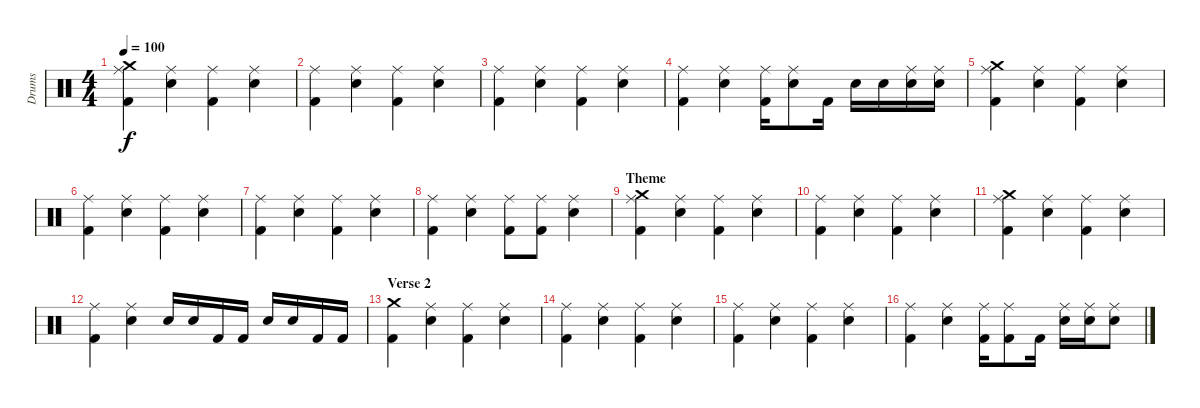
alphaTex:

\track ("Drums" "Drums") {instrument percussion}
\staff {score}
\articulation defaults
\ts (4 4)
\tempo 100
\clef neutral
\ks c
("Kick (hit) 2" "Ride (middle)" "Crash medium (hit)").4{dy f} ("Snare (hit) 2" "Ride (middle)").4 ("Kick (hit) 2" "Ride (middle)").4 ("Snare (hit) 2" "Ride (middle)").4 |
("Kick (hit) 2" "Ride (middle)").4 ("Snare (hit) 2" "Ride (middle)").4 ("Kick (hit) 2" "Ride (middle)").4 ("Snare (hit) 2" "Ride (middle)").4 |
("Kick (hit) 2" "Ride (middle)").4 ("Snare (hit) 2" "Ride (middle)").4 ("Kick (hit) 2" "Ride (middle)").4 ("Snare (hit) 2" "Ride (middle)").4 |
("Kick (hit) 2" "Ride (middle)").4 ("Snare (hit) 2" "Ride (middle)").4 ("Kick (hit) 2" "Ride (middle)").16 ("Snare (hit) 2" "Ride (middle)").8 "Kick (hit) 2".16 "Snare (hit) 2".16 "Snare (hit) 2".16 ("Snare (hit) 2" "Ride (middle)").16 ("Snare (hit) 2" "Ride (middle)").16 |
("Kick (hit) 2" "Ride (middle)" "Crash medium (hit)").4 ("Snare (hit) 2" "Ride (middle)").4 ("Kick (hit) 2" "Ride (middle)").4 ("Snare (hit) 2" "Ride (middle)").4 |
("Kick (hit) 2" "Ride (middle)").4 ("Snare (hit) 2" "Ride (middle)").4 ("Kick (hit) 2" "Ride (middle)").4 ("Snare (hit) 2" "Ride (middle)").4 |
("Kick (hit) 2" "Ride (middle)").4 ("Snare (hit) 2" "Ride (middle)").4 ("Kick (hit) 2" "Ride (middle)").4 ("Snare (hit) 2" "Ride (middle)").4 |
("Kick (hit) 2" "Ride (middle)").4 ("Snare (hit) 2" "Ride (middle)").4 ("Kick (hit) 2" "Ride (middle)").8 ("Kick (hit) 2" "Ride (middle)").8 ("Snare (hit) 2" "Ride (middle)").4 |
\section ("" "Theme")
("Kick (hit) 2" "Ride (middle)" "Crash medium (hit)").4 ("Snare (hit) 2" "Ride (middle)").4 ("Kick (hit) 2" "Ride (middle)").4 ("Snare (hit) 2" "Ride (middle)").4 |
("Kick (hit) 2" "Ride (middle)").4 ("Snare (hit) 2" "Ride (middle)").4 ("Kick (hit) 2" "Ride (middle)").4 ("Snare (hit) 2" "Ride (middle)").4 |
("Kick (hit) 2" "Ride (middle)" "Crash medium (hit)").4 ("Snare (hit) 2" "Ride (middle)").4 ("Kick (hit) 2" "Ride (middle)").4 ("Snare (hit) 2" "Ride (middle)").4 |
("Kick (hit) 2" "Ride (middle)").4 ("Snare (hit) 2" "Ride (middle)").4 "Snare (hit) 2".16 "Snare (hit) 2".16 "Kick (hit) 2".16 "Kick (hit) 2".16 "Snare (hit) 2".16 "Snare (hit) 2".16 "Kick (hit) 2".16 "Kick (hit) 2".16 |
\section ("" "Verse 2")
("Crash medium (hit)" "Kick (hit) 2").4 ("Snare (hit) 2" "Ride (middle)").4 ("Kick (hit) 2" "Ride (middle)").4 ("Snare (hit) 2" "Ride (middle)").4 |
("Kick (hit) 2" "Ride (middle)").4 ("Snare (hit) 2" "Ride (middle)").4 ("Kick (hit) 2" "Ride (middle)").4 ("Snare (hit) 2" "Ride (middle)").4 |
("Kick (hit) 2" "Ride (middle)").4 ("Snare (hit) 2" "Ride (middle)").4 ("Kick (hit) 2" "Ride (middle)").4 ("Snare (hit) 2" "Ride (middle)").4 |
("Kick (hit) 2" "Ride (middle)").4 ("Snare (hit) 2" "Ride (middle)").4 ("Kick (hit) 2" "Ride (middle)").16 ("Kick (hit) 2" "Ride (middle)").8 "Kick (hit) 2".16 ("Snare (hit) 2" "Ride (middle)").16 ("Snare (hit) 2" "Ride (middle)").16 ("Snare (hit) 2" "Ride (middle)").8
